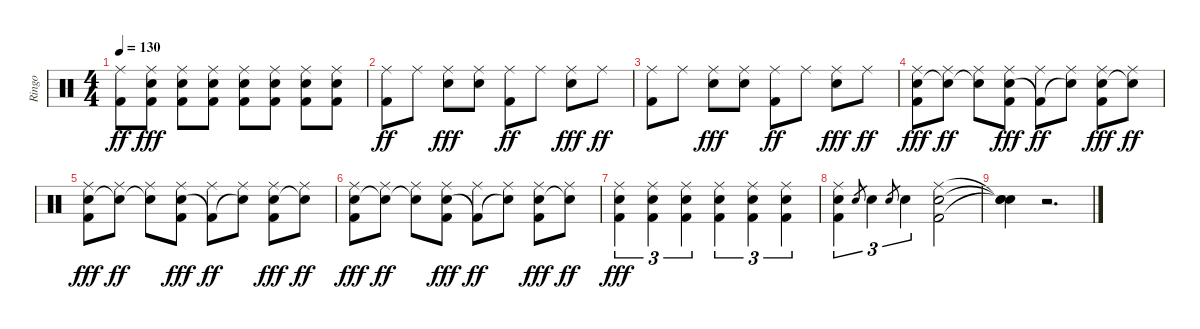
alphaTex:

\track ("Ringo" "Ringo") {instrument percussion}
\staff {score}
\articulation defaults
\ts (4 4)
\tempo 130
\clef neutral
\ks c
("Ride (middle)" "Kick (hit) 2").8{dy ff} ("Ride (middle)" "Electric Snare (hit)" "Kick (hit) 2").8{dy fff} ("Ride (middle)" "Electric Snare (hit)" "Kick (hit) 2").8 ("Ride (middle)" "Electric Snare (hit)" "Kick (hit) 2").8 ("Ride (middle)" "Electric Snare (hit)" "Kick (hit) 2").8 ("Ride (middle)" "Electric Snare (hit)" "Kick (hit) 2").8 ("Ride (middle)" "Electric Snare (hit)" "Kick (hit) 2").8 ("Ride (middle)" "Electric Snare (hit)" "Kick (hit) 2").8 |
("Ride (middle)" "Kick (hit) 2").8{dy ff} "Ride (middle)".8 ("Ride (middle)" "Electric Snare (hit)").8{dy fff} ("Ride (middle)" "Electric Snare (hit)").8 ("Ride (middle)" "Kick (hit) 2").8{dy ff} "Ride (middle)".8 ("Ride (middle)" "Electric Snare (hit)").8{dy fff} "Ride (middle)".8{dy ff} |
("Ride (middle)" "Kick (hit) 2").8 "Ride (middle)".8 ("Ride (middle)" "Electric Snare (hit)").8{dy fff} ("Ride (middle)" "Electric Snare (hit)").8 ("Ride (middle)" "Kick (hit) 2").8{dy ff} "Ride (middle)".8 ("Ride (middle)" "Electric Snare (hit)").8{dy fff} "Ride (middle)".8{dy ff} |
("Ride (middle)" "Electric Snare (hit)" "Kick (hit) 2").8{dy fff} ("Ride (middle)" "Snare (hit)"{t}).8{dy ff} ("Ride (middle)" "Snare (hit)"{t}).8 ("Ride (middle)" "Electric Snare (hit)" "Kick (hit) 2").8{dy fff} ("Ride (middle)" "Kick (hit) 2"{t}).8{dy ff} ("Ride (middle)" "Snare (hit)"{t}).8 ("Ride (middle)" "Electric Snare (hit)" "Kick (hit) 2").8{dy fff} ("Ride (middle)" "Snare (hit)"{t}).8{dy ff} |
("Ride (middle)" "Electric Snare (hit)" "Kick (hit) 2").8{dy fff} ("Ride (middle)" "Snare (hit)"{t}).8{dy ff} ("Ride (middle)" "Snare (hit)"{t}).8 ("Ride (middle)" "Electric Snare (hit)" "Kick (hit) 2").8{dy fff} ("Ride (middle)" "Kick (hit) 2"{t}).8{dy ff} ("Ride (middle)" "Snare (hit)"{t}).8 ("Ride (middle)" "Electric Snare (hit)" "Kick (hit) 2").8{dy fff} ("Ride (middle)" "Snare (hit)"{t}).8{dy ff} |
("Ride (middle)" "Electric Snare (hit)" "Kick (hit) 2").8{dy fff} ("Ride (middle)" "Snare (hit)"{t}).8{dy ff} ("Ride (middle)" "Snare (hit)"{t}).8 ("Ride (middle)" "Electric Snare (hit)" "Kick (hit) 2").8{dy fff} ("Ride (middle)" "Kick (hit) 2"{t}).8{dy ff} ("Ride (middle)" "Snare (hit)"{t}).8 ("Ride (middle)" "Electric Snare (hit)" "Kick (hit) 2").8{dy fff} ("Ride (middle)" "Snare (hit)"{t}).8{dy ff} |
("Ride (middle)" "Electric Snare (hit)" "Kick (hit) 2").4{tu (3 2) dy fff} ("Ride (middle)" "Electric Snare (hit)" "Kick (hit) 2").4{tu (3 2)} ("Ride (middle)" "Electric Snare (hit)" "Kick (hit) 2").4{tu (3 2)} ("Ride (middle)" "Electric Snare (hit)" "Kick (hit) 2").4{tu (3 2)} ("Ride (middle)" "Electric Snare (hit)" "Kick (hit) 2").4{tu (3 2)} ("Ride (middle)" "Electric Snare (hit)" "Kick (hit) 2").4{tu (3 2)} |
("Ride (middle)" "Electric Snare (hit)" "Kick (hit) 2").4{tu (3 2)} "Electric Snare (hit)".8{gr} "Electric Snare (hit)".4{tu (3 2)} "Electric Snare (hit)".8{gr} "Electric Snare (hit)".4{tu (3 2)} ("Ride (middle)" "Electric Snare (hit)" "Kick (hit) 2").2 |
("Snare (hit)"{t} "Snare (hit)"{t} "Snare (hit)"{t}).4 r.2{d}
